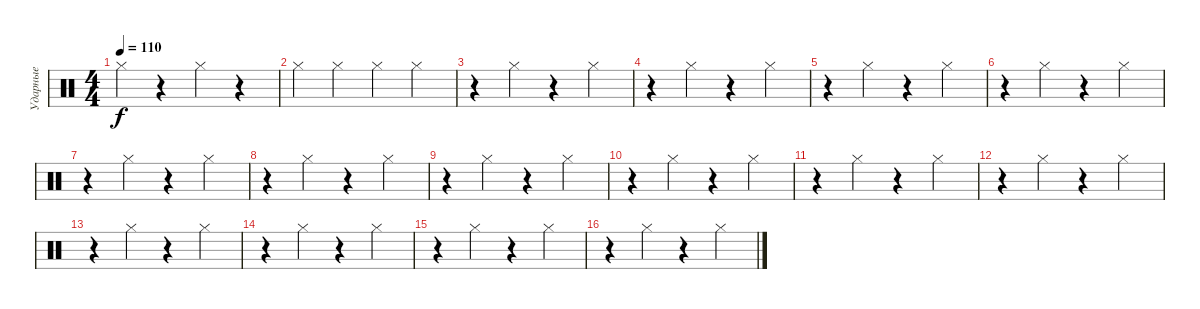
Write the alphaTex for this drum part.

\track ("Ударные" "Ударные") {instrument percussion}
\staff {score}
\articulation defaults
\ts (4 4)
\tempo 110
\clef neutral
\ks c "Hi-Hat (closed)".4{dy f}
r.4 "Hi-Hat (closed)".4 r.4 |
"Hi-Hat (closed)".4 "Hi-Hat (closed)".4 "Hi-Hat (closed)".4 "Hi-Hat (closed)".4 |
r.4 "Hi-Hat (closed)".4 r.4 "Hi-Hat (closed)".4 |
r.4 "Hi-Hat (closed)".4 r.4 "Hi-Hat (closed)".4 |
r.4 "Hi-Hat (closed)".4 r.4 "Hi-Hat (closed)".4 |
r.4 "Hi-Hat (closed)".4 r.4 "Hi-Hat (closed)".4 |
r.4 "Hi-Hat (closed)".4 r.4 "Hi-Hat (closed)".4 |
r.4 "Hi-Hat (closed)".4 r.4 "Hi-Hat (closed)".4 |
r.4 "Hi-Hat (closed)".4 r.4 "Hi-Hat (closed)".4 |
r.4 "Hi-Hat (closed)".4 r.4 "Hi-Hat (closed)".4 |
r.4 "Hi-Hat (closed)".4 r.4 "Hi-Hat (closed)".4 |
r.4 "Hi-Hat (closed)".4 r.4 "Hi-Hat (closed)".4 |
r.4 "Hi-Hat (closed)".4 r.4 "Hi-Hat (closed)".4 |
r.4 "Hi-Hat (closed)".4 r.4 "Hi-Hat (closed)".4 |
r.4 "Hi-Hat (closed)".4 r.4 "Hi-Hat (closed)".4 |
r.4 "Hi-Hat (closed)".4 r.4 "Hi-Hat (closed)".4
